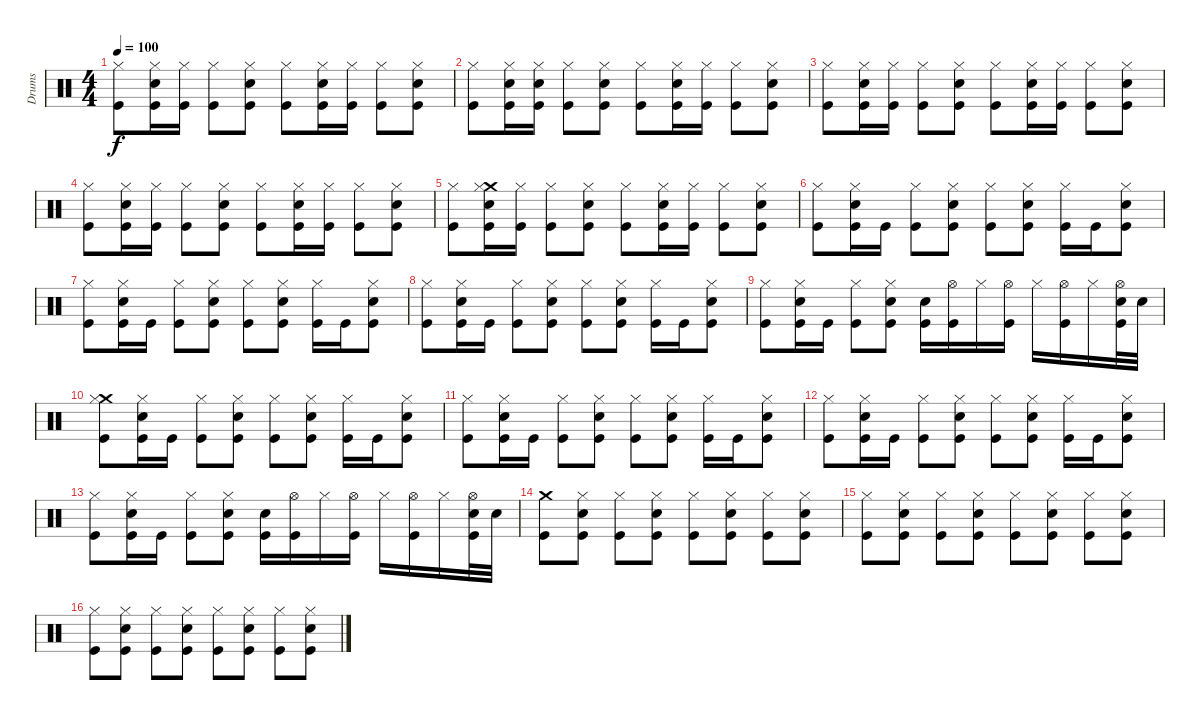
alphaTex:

\track ("Drums" "Drums") {instrument percussion}
\staff {score}
\articulation defaults
\ts (4 4)
\tempo 100
\clef neutral
\ks c
("Hi-Hat (closed)" "Kick (hit)").8{dy f} ("Electric Snare (hit)" "Hi-Hat (closed)" "Kick (hit)").16 ("Hi-Hat (closed)" "Kick (hit)").16 ("Hi-Hat (closed)" "Kick (hit)").8 ("Electric Snare (hit)" "Hi-Hat (closed)" "Kick (hit)").8 ("Hi-Hat (closed)" "Kick (hit)").8 ("Electric Snare (hit)" "Hi-Hat (closed)" "Kick (hit)").16 ("Hi-Hat (closed)" "Kick (hit)").16 ("Hi-Hat (closed)" "Kick (hit)").8 ("Electric Snare (hit)" "Hi-Hat (closed)" "Kick (hit)").8 |
("Hi-Hat (closed)" "Kick (hit)").8 ("Electric Snare (hit)" "Hi-Hat (closed)" "Kick (hit)").16 ("Electric Snare (hit)" "Hi-Hat (closed)" "Kick (hit)").16 ("Hi-Hat (closed)" "Kick (hit)").8 ("Electric Snare (hit)" "Hi-Hat (closed)" "Kick (hit)").8 ("Hi-Hat (closed)" "Kick (hit)").8 ("Electric Snare (hit)" "Hi-Hat (closed)" "Kick (hit)").16 ("Hi-Hat (closed)" "Kick (hit)").16 ("Hi-Hat (closed)" "Kick (hit)").8 ("Electric Snare (hit)" "Hi-Hat (closed)" "Kick (hit)").8 |
("Hi-Hat (closed)" "Kick (hit)").8 ("Electric Snare (hit)" "Hi-Hat (closed)" "Kick (hit)").16 ("Hi-Hat (closed)" "Kick (hit)").16 ("Hi-Hat (closed)" "Kick (hit)").8 ("Electric Snare (hit)" "Hi-Hat (closed)" "Kick (hit)").8 ("Hi-Hat (closed)" "Kick (hit)").8 ("Electric Snare (hit)" "Hi-Hat (closed)" "Kick (hit)").16 ("Hi-Hat (closed)" "Kick (hit)").16 ("Hi-Hat (closed)" "Kick (hit)").8 ("Electric Snare (hit)" "Hi-Hat (closed)" "Kick (hit)").8 |
("Hi-Hat (closed)" "Kick (hit)").8 ("Electric Snare (hit)" "Hi-Hat (closed)" "Kick (hit)").16 ("Hi-Hat (closed)" "Kick (hit)").16 ("Hi-Hat (closed)" "Kick (hit)").8 ("Electric Snare (hit)" "Hi-Hat (closed)" "Kick (hit)").8 ("Hi-Hat (closed)" "Kick (hit)").8 ("Electric Snare (hit)" "Hi-Hat (closed)" "Kick (hit)").16 ("Hi-Hat (closed)" "Kick (hit)").16 ("Hi-Hat (closed)" "Kick (hit)").8 ("Electric Snare (hit)" "Hi-Hat (closed)" "Kick (hit)").8 |
("Hi-Hat (closed)" "Kick (hit)").8 ("Crash medium (hit)" "Electric Snare (hit)" "Hi-Hat (closed)" "Kick (hit)").16 ("Hi-Hat (closed)" "Kick (hit)").16 ("Hi-Hat (closed)" "Kick (hit)").8 ("Electric Snare (hit)" "Hi-Hat (closed)" "Kick (hit)").8 ("Hi-Hat (closed)" "Kick (hit)").8 ("Electric Snare (hit)" "Hi-Hat (closed)" "Kick (hit)").16 ("Hi-Hat (closed)" "Kick (hit)").16 ("Hi-Hat (closed)" "Kick (hit)").8 ("Electric Snare (hit)" "Hi-Hat (closed)" "Kick (hit)").8 |
("Hi-Hat (closed)" "Kick (hit)").8 ("Electric Snare (hit)" "Hi-Hat (closed)" "Kick (hit)").16 "Kick (hit)".16 ("Hi-Hat (closed)" "Kick (hit)").8 ("Electric Snare (hit)" "Hi-Hat (closed)" "Kick (hit)").8 ("Hi-Hat (closed)" "Kick (hit)").8 ("Electric Snare (hit)" "Hi-Hat (closed)" "Kick (hit)").8 ("Hi-Hat (closed)" "Kick (hit)").16 "Kick (hit)".16 ("Electric Snare (hit)" "Hi-Hat (closed)" "Kick (hit)").8 |
("Hi-Hat (closed)" "Kick (hit)").8 ("Electric Snare (hit)" "Hi-Hat (closed)" "Kick (hit)").16 "Kick (hit)".16 ("Hi-Hat (closed)" "Kick (hit)").8 ("Electric Snare (hit)" "Hi-Hat (closed)" "Kick (hit)").8 ("Hi-Hat (closed)" "Kick (hit)").8 ("Electric Snare (hit)" "Hi-Hat (closed)" "Kick (hit)").8 ("Hi-Hat (closed)" "Kick (hit)").16 "Kick (hit)".16 ("Electric Snare (hit)" "Hi-Hat (closed)" "Kick (hit)").8 |
("Hi-Hat (closed)" "Kick (hit)").8 ("Electric Snare (hit)" "Hi-Hat (closed)" "Kick (hit)").16 "Kick (hit)".16 ("Hi-Hat (closed)" "Kick (hit)").8 ("Electric Snare (hit)" "Hi-Hat (closed)" "Kick (hit)").8 ("Hi-Hat (closed)" "Kick (hit)").8 ("Electric Snare (hit)" "Hi-Hat (closed)" "Kick (hit)").8 ("Hi-Hat (closed)" "Kick (hit)").16 "Kick (hit)".16 ("Electric Snare (hit)" "Hi-Hat (closed)" "Kick (hit)").8 |
("Hi-Hat (closed)" "Kick (hit)").8 ("Electric Snare (hit)" "Hi-Hat (closed)" "Kick (hit)").16 "Kick (hit)".16 ("Hi-Hat (closed)" "Kick (hit)").8 ("Electric Snare (hit)" "Hi-Hat (closed)" "Kick (hit)").8 ("Electric Snare (hit)" "Kick (hit)").16 ("Hi-Hat (open)" "Kick (hit)").16 "Hi-Hat (closed)".16 ("Hi-Hat (open)" "Kick (hit)").16 "Hi-Hat (closed)".16 ("Hi-Hat (open)" "Kick (hit)").16 "Hi-Hat (closed)".16 ("Electric Snare (hit)" "Hi-Hat (open)" "Kick (hit)").32 "Electric Snare (hit)".32 |
("Crash medium (hit)" "Hi-Hat (closed)" "Kick (hit)").8 ("Electric Snare (hit)" "Hi-Hat (closed)" "Kick (hit)").16 "Kick (hit)".16 ("Hi-Hat (closed)" "Kick (hit)").8 ("Electric Snare (hit)" "Hi-Hat (closed)" "Kick (hit)").8 ("Hi-Hat (closed)" "Kick (hit)").8 ("Electric Snare (hit)" "Hi-Hat (closed)" "Kick (hit)").8 ("Hi-Hat (closed)" "Kick (hit)").16 "Kick (hit)".16 ("Electric Snare (hit)" "Hi-Hat (closed)" "Kick (hit)").8 |
("Hi-Hat (closed)" "Kick (hit)").8 ("Electric Snare (hit)" "Hi-Hat (closed)" "Kick (hit)").16 "Kick (hit)".16 ("Hi-Hat (closed)" "Kick (hit)").8 ("Electric Snare (hit)" "Hi-Hat (closed)" "Kick (hit)").8 ("Hi-Hat (closed)" "Kick (hit)").8 ("Electric Snare (hit)" "Hi-Hat (closed)" "Kick (hit)").8 ("Hi-Hat (closed)" "Kick (hit)").16 "Kick (hit)".16 ("Electric Snare (hit)" "Hi-Hat (closed)" "Kick (hit)").8 |
("Hi-Hat (closed)" "Kick (hit)").8 ("Electric Snare (hit)" "Hi-Hat (closed)" "Kick (hit)").16 "Kick (hit)".16 ("Hi-Hat (closed)" "Kick (hit)").8 ("Electric Snare (hit)" "Hi-Hat (closed)" "Kick (hit)").8 ("Hi-Hat (closed)" "Kick (hit)").8 ("Electric Snare (hit)" "Hi-Hat (closed)" "Kick (hit)").8 ("Hi-Hat (closed)" "Kick (hit)").16 "Kick (hit)".16 ("Electric Snare (hit)" "Hi-Hat (closed)" "Kick (hit)").8 |
("Hi-Hat (closed)" "Kick (hit)").8 ("Electric Snare (hit)" "Hi-Hat (closed)" "Kick (hit)").16 "Kick (hit)".16 ("Hi-Hat (closed)" "Kick (hit)").8 ("Electric Snare (hit)" "Hi-Hat (closed)" "Kick (hit)").8 ("Electric Snare (hit)" "Kick (hit)").16 ("Hi-Hat (open)" "Kick (hit)").16 "Hi-Hat (closed)".16 ("Hi-Hat (open)" "Kick (hit)").16 "Hi-Hat (closed)".16 ("Hi-Hat (open)" "Kick (hit)").16 "Hi-Hat (closed)".16 ("Electric Snare (hit)" "Hi-Hat (open)" "Kick (hit)").32 "Electric Snare (hit)".32 |
("Crash medium (hit)" "Kick (hit)").8 ("Electric Snare (hit)" "Hi-Hat (closed)" "Kick (hit)").8 ("Hi-Hat (closed)" "Kick (hit)").8 ("Electric Snare (hit)" "Hi-Hat (closed)" "Kick (hit)").8 ("Hi-Hat (closed)" "Kick (hit)").8 ("Electric Snare (hit)" "Hi-Hat (closed)" "Kick (hit)").8 ("Hi-Hat (closed)" "Kick (hit)").8 ("Electric Snare (hit)" "Hi-Hat (closed)" "Kick (hit)").8 |
("Hi-Hat (closed)" "Kick (hit)").8 ("Electric Snare (hit)" "Hi-Hat (closed)" "Kick (hit)").8 ("Hi-Hat (closed)" "Kick (hit)").8 ("Electric Snare (hit)" "Hi-Hat (closed)" "Kick (hit)").8 ("Hi-Hat (closed)" "Kick (hit)").8 ("Electric Snare (hit)" "Hi-Hat (closed)" "Kick (hit)").8 ("Hi-Hat (closed)" "Kick (hit)").8 ("Electric Snare (hit)" "Hi-Hat (closed)" "Kick (hit)").8 |
("Hi-Hat (closed)" "Kick (hit)").8 ("Electric Snare (hit)" "Hi-Hat (closed)" "Kick (hit)").8 ("Hi-Hat (closed)" "Kick (hit)").8 ("Electric Snare (hit)" "Hi-Hat (closed)" "Kick (hit)").8 ("Hi-Hat (closed)" "Kick (hit)").8 ("Electric Snare (hit)" "Hi-Hat (closed)" "Kick (hit)").8 ("Hi-Hat (closed)" "Kick (hit)").8 ("Electric Snare (hit)" "Hi-Hat (closed)" "Kick (hit)").8
